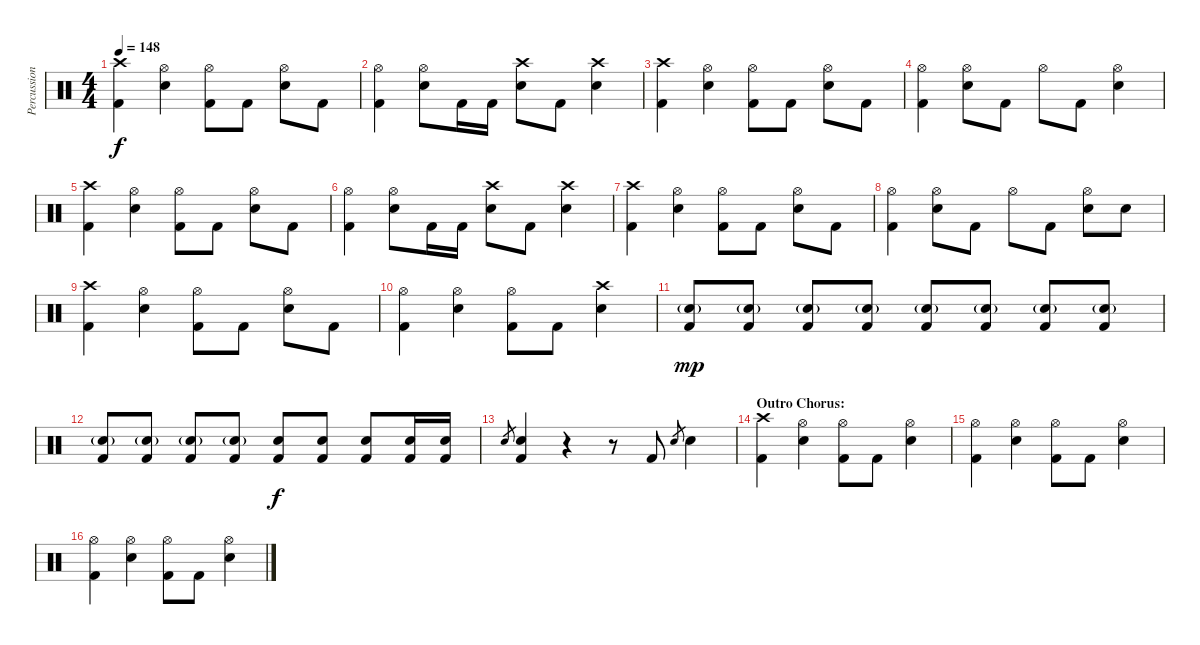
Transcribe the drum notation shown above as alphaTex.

\track ("Percussion" "Percussion") {instrument percussion}
\staff {score}
\articulation defaults
\ts (4 4)
\tempo 148
\clef neutral
\ks c
("Crash high (hit)" "Kick (hit) 2").4{dy f} ("Hi-Hat (open)" "Electric Snare (hit)").4 ("Hi-Hat (open)" "Kick (hit) 2").8 "Kick (hit) 2".8 ("Hi-Hat (open)" "Electric Snare (hit)").8 "Kick (hit) 2".8 |
("Hi-Hat (open)" "Kick (hit) 2").4 ("Hi-Hat (open)" "Electric Snare (hit)").8 "Kick (hit) 2".16 "Kick (hit) 2".16 ("Crash high (hit)" "Electric Snare (hit)").8 "Kick (hit) 2".8 ("Crash high (hit)" "Electric Snare (hit)").4 |
("Crash high (hit)" "Kick (hit) 2").4 ("Hi-Hat (open)" "Electric Snare (hit)").4 ("Hi-Hat (open)" "Kick (hit) 2").8 "Kick (hit) 2".8 ("Hi-Hat (open)" "Electric Snare (hit)").8 "Kick (hit) 2".8 |
("Hi-Hat (open)" "Kick (hit) 2").4 ("Hi-Hat (open)" "Electric Snare (hit)").8 "Kick (hit) 2".8 "Hi-Hat (open)".8 "Kick (hit) 2".8 ("Hi-Hat (open)" "Electric Snare (hit)").4 |
("Crash high (hit)" "Kick (hit) 2").4 ("Hi-Hat (open)" "Electric Snare (hit)").4 ("Hi-Hat (open)" "Kick (hit) 2").8 "Kick (hit) 2".8 ("Hi-Hat (open)" "Electric Snare (hit)").8 "Kick (hit) 2".8 |
("Hi-Hat (open)" "Kick (hit) 2").4 ("Hi-Hat (open)" "Electric Snare (hit)").8 "Kick (hit) 2".16 "Kick (hit) 2".16 ("Crash high (hit)" "Electric Snare (hit)").8 "Kick (hit) 2".8 ("Crash high (hit)" "Electric Snare (hit)").4 |
("Crash high (hit)" "Kick (hit) 2").4 ("Hi-Hat (open)" "Electric Snare (hit)").4 ("Hi-Hat (open)" "Kick (hit) 2").8 "Kick (hit) 2".8 ("Hi-Hat (open)" "Electric Snare (hit)").8 "Kick (hit) 2".8 |
("Hi-Hat (open)" "Kick (hit) 2").4 ("Hi-Hat (open)" "Electric Snare (hit)").8 "Kick (hit) 2".8 "Hi-Hat (open)".8 "Kick (hit) 2".8 ("Hi-Hat (open)" "Electric Snare (hit)").8 "Electric Snare (hit)".8 |
("Crash high (hit)" "Kick (hit) 2").4 ("Hi-Hat (open)" "Electric Snare (hit)").4 ("Hi-Hat (open)" "Kick (hit) 2").8 "Kick (hit) 2".8 ("Hi-Hat (open)" "Electric Snare (hit)").8 "Kick (hit) 2".8 |
("Hi-Hat (open)" "Kick (hit) 2").4 ("Hi-Hat (open)" "Electric Snare (hit)").4 ("Hi-Hat (open)" "Kick (hit) 2").8 "Kick (hit) 2".8 ("Crash high (hit)" "Electric Snare (hit)").4 |
("Electric Snare (hit)"{g} "Kick (hit) 2").8{dy mp} ("Electric Snare (hit)"{g} "Kick (hit) 2").8 ("Electric Snare (hit)"{g} "Kick (hit) 2").8 ("Electric Snare (hit)"{g} "Kick (hit) 2").8 ("Electric Snare (hit)"{g} "Kick (hit) 2").8 ("Electric Snare (hit)"{g} "Kick (hit) 2").8 ("Electric Snare (hit)"{g} "Kick (hit) 2").8 ("Electric Snare (hit)"{g} "Kick (hit) 2").8 |
("Electric Snare (hit)"{g} "Kick (hit) 2").8 ("Electric Snare (hit)"{g} "Kick (hit) 2").8 ("Electric Snare (hit)"{g} "Kick (hit) 2").8 ("Electric Snare (hit)"{g} "Kick (hit) 2").8 ("Electric Snare (hit)" "Kick (hit) 2").8{dy f} ("Electric Snare (hit)" "Kick (hit) 2").8 ("Electric Snare (hit)" "Kick (hit) 2").8 ("Electric Snare (hit)" "Kick (hit) 2").16 ("Electric Snare (hit)" "Kick (hit) 2").16 |
"Electric Snare (hit)".8{gr} ("Electric Snare (hit)" "Kick (hit) 2").4 r.4 r.8 "Kick (hit) 2".8 "Electric Snare (hit)".8{gr} "Electric Snare (hit)".4 |
\section ("" "Outro Chorus:")
("Crash high (hit)" "Kick (hit) 2").4 ("Hi-Hat (open)" "Electric Snare (hit)").4 ("Hi-Hat (open)" "Kick (hit) 2").8 "Kick (hit) 2".8 ("Hi-Hat (open)" "Electric Snare (hit)").4 |
("Hi-Hat (open)" "Kick (hit) 2").4 ("Hi-Hat (open)" "Electric Snare (hit)").4 ("Hi-Hat (open)" "Kick (hit) 2").8 "Kick (hit) 2".8 ("Hi-Hat (open)" "Electric Snare (hit)").4 |
("Hi-Hat (open)" "Kick (hit) 2").4 ("Hi-Hat (open)" "Electric Snare (hit)").4 ("Hi-Hat (open)" "Kick (hit) 2").8 "Kick (hit) 2".8 ("Hi-Hat (open)" "Electric Snare (hit)").4
